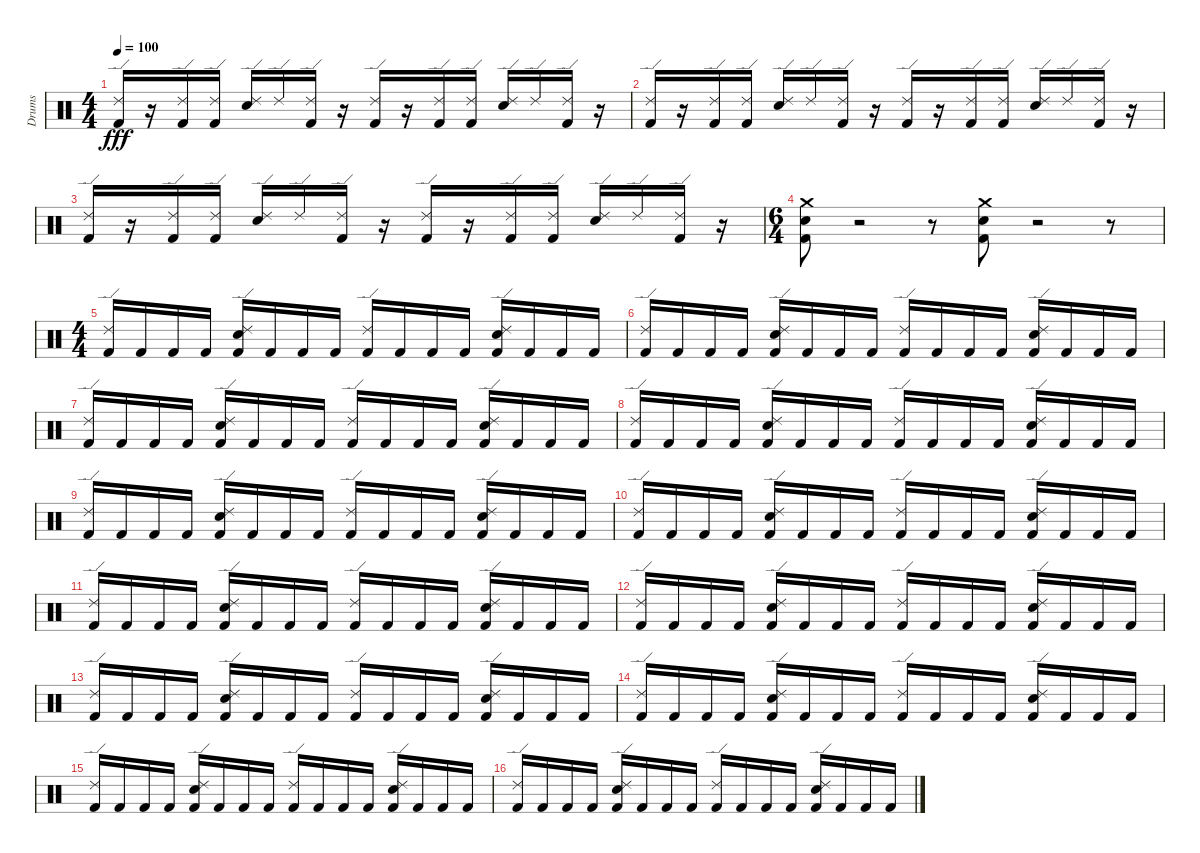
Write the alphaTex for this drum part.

\track ("Drums" "Drums") {instrument percussion}
\staff {score}
\articulation defaults
\ts (4 4)
\tempo 100
\clef neutral
\ks c
("Ride (edge) 2" "Kick (hit) 2").16{dy fff} r.16 ("Ride (edge) 2" "Kick (hit) 2").16 ("Ride (edge) 2" "Kick (hit) 2").16 ("Ride (edge) 2" "Electric Snare (hit)").16 "Ride (edge) 2".16 ("Ride (edge) 2" "Kick (hit) 2").16 r.16 ("Ride (edge) 2" "Kick (hit) 2").16 r.16 ("Ride (edge) 2" "Kick (hit) 2").16 ("Ride (edge) 2" "Kick (hit) 2").16 ("Ride (edge) 2" "Electric Snare (hit)").16 "Ride (edge) 2".16 ("Ride (edge) 2" "Kick (hit) 2").16 r.16 |
("Ride (edge) 2" "Kick (hit) 2").16 r.16 ("Ride (edge) 2" "Kick (hit) 2").16 ("Ride (edge) 2" "Kick (hit) 2").16 ("Ride (edge) 2" "Electric Snare (hit)").16 "Ride (edge) 2".16 ("Ride (edge) 2" "Kick (hit) 2").16 r.16 ("Ride (edge) 2" "Kick (hit) 2").16 r.16 ("Ride (edge) 2" "Kick (hit) 2").16 ("Ride (edge) 2" "Kick (hit) 2").16 ("Ride (edge) 2" "Electric Snare (hit)").16 "Ride (edge) 2".16 ("Ride (edge) 2" "Kick (hit) 2").16 r.16 |
("Ride (edge) 2" "Kick (hit) 2").16 r.16 ("Ride (edge) 2" "Kick (hit) 2").16 ("Ride (edge) 2" "Kick (hit) 2").16 ("Ride (edge) 2" "Electric Snare (hit)").16 "Ride (edge) 2".16 ("Ride (edge) 2" "Kick (hit) 2").16 r.16 ("Ride (edge) 2" "Kick (hit) 2").16 r.16 ("Ride (edge) 2" "Kick (hit) 2").16 ("Ride (edge) 2" "Kick (hit) 2").16 ("Ride (edge) 2" "Electric Snare (hit)").16 "Ride (edge) 2".16 ("Ride (edge) 2" "Kick (hit) 2").16 r.16 |
\ts (6 4)
("Crash medium (hit)" "Electric Snare (hit)" "Kick (hit) 2").8 r.2 r.8 ("Crash medium (hit)" "Electric Snare (hit)" "Kick (hit) 2").8 r.2 r.8 |
\ts (4 4)
("Ride (edge) 2" "Kick (hit) 2").16 "Kick (hit) 2".16 "Kick (hit) 2".16 "Kick (hit) 2".16 ("Electric Snare (hit)" "Ride (edge) 2" "Kick (hit) 2").16 "Kick (hit) 2".16 "Kick (hit) 2".16 "Kick (hit) 2".16 ("Ride (edge) 2" "Kick (hit) 2").16 "Kick (hit) 2".16 "Kick (hit) 2".16 "Kick (hit) 2".16 ("Ride (edge) 2" "Electric Snare (hit)" "Kick (hit) 2").16 "Kick (hit) 2".16 "Kick (hit) 2".16 "Kick (hit) 2".16 |
("Ride (edge) 2" "Kick (hit) 2").16 "Kick (hit) 2".16 "Kick (hit) 2".16 "Kick (hit) 2".16 ("Electric Snare (hit)" "Ride (edge) 2" "Kick (hit) 2").16 "Kick (hit) 2".16 "Kick (hit) 2".16 "Kick (hit) 2".16 ("Ride (edge) 2" "Kick (hit) 2").16 "Kick (hit) 2".16 "Kick (hit) 2".16 "Kick (hit) 2".16 ("Ride (edge) 2" "Electric Snare (hit)" "Kick (hit) 2").16 "Kick (hit) 2".16 "Kick (hit) 2".16 "Kick (hit) 2".16 |
("Ride (edge) 2" "Kick (hit) 2").16 "Kick (hit) 2".16 "Kick (hit) 2".16 "Kick (hit) 2".16 ("Electric Snare (hit)" "Ride (edge) 2" "Kick (hit) 2").16 "Kick (hit) 2".16 "Kick (hit) 2".16 "Kick (hit) 2".16 ("Ride (edge) 2" "Kick (hit) 2").16 "Kick (hit) 2".16 "Kick (hit) 2".16 "Kick (hit) 2".16 ("Ride (edge) 2" "Electric Snare (hit)" "Kick (hit) 2").16 "Kick (hit) 2".16 "Kick (hit) 2".16 "Kick (hit) 2".16 |
("Ride (edge) 2" "Kick (hit) 2").16 "Kick (hit) 2".16 "Kick (hit) 2".16 "Kick (hit) 2".16 ("Electric Snare (hit)" "Ride (edge) 2" "Kick (hit) 2").16 "Kick (hit) 2".16 "Kick (hit) 2".16 "Kick (hit) 2".16 ("Ride (edge) 2" "Kick (hit) 2").16 "Kick (hit) 2".16 "Kick (hit) 2".16 "Kick (hit) 2".16 ("Ride (edge) 2" "Electric Snare (hit)" "Kick (hit) 2").16 "Kick (hit) 2".16 "Kick (hit) 2".16 "Kick (hit) 2".16 |
("Ride (edge) 2" "Kick (hit) 2").16 "Kick (hit) 2".16 "Kick (hit) 2".16 "Kick (hit) 2".16 ("Electric Snare (hit)" "Ride (edge) 2" "Kick (hit) 2").16 "Kick (hit) 2".16 "Kick (hit) 2".16 "Kick (hit) 2".16 ("Ride (edge) 2" "Kick (hit) 2").16 "Kick (hit) 2".16 "Kick (hit) 2".16 "Kick (hit) 2".16 ("Ride (edge) 2" "Electric Snare (hit)" "Kick (hit) 2").16 "Kick (hit) 2".16 "Kick (hit) 2".16 "Kick (hit) 2".16 |
("Ride (edge) 2" "Kick (hit) 2").16 "Kick (hit) 2".16 "Kick (hit) 2".16 "Kick (hit) 2".16 ("Electric Snare (hit)" "Ride (edge) 2" "Kick (hit) 2").16 "Kick (hit) 2".16 "Kick (hit) 2".16 "Kick (hit) 2".16 ("Ride (edge) 2" "Kick (hit) 2").16 "Kick (hit) 2".16 "Kick (hit) 2".16 "Kick (hit) 2".16 ("Ride (edge) 2" "Electric Snare (hit)" "Kick (hit) 2").16 "Kick (hit) 2".16 "Kick (hit) 2".16 "Kick (hit) 2".16 |
("Ride (edge) 2" "Kick (hit) 2").16 "Kick (hit) 2".16 "Kick (hit) 2".16 "Kick (hit) 2".16 ("Electric Snare (hit)" "Ride (edge) 2" "Kick (hit) 2").16 "Kick (hit) 2".16 "Kick (hit) 2".16 "Kick (hit) 2".16 ("Ride (edge) 2" "Kick (hit) 2").16 "Kick (hit) 2".16 "Kick (hit) 2".16 "Kick (hit) 2".16 ("Ride (edge) 2" "Electric Snare (hit)" "Kick (hit) 2").16 "Kick (hit) 2".16 "Kick (hit) 2".16 "Kick (hit) 2".16 |
("Ride (edge) 2" "Kick (hit) 2").16 "Kick (hit) 2".16 "Kick (hit) 2".16 "Kick (hit) 2".16 ("Electric Snare (hit)" "Ride (edge) 2" "Kick (hit) 2").16 "Kick (hit) 2".16 "Kick (hit) 2".16 "Kick (hit) 2".16 ("Ride (edge) 2" "Kick (hit) 2").16 "Kick (hit) 2".16 "Kick (hit) 2".16 "Kick (hit) 2".16 ("Ride (edge) 2" "Electric Snare (hit)" "Kick (hit) 2").16 "Kick (hit) 2".16 "Kick (hit) 2".16 "Kick (hit) 2".16 |
("Ride (edge) 2" "Kick (hit) 2").16 "Kick (hit) 2".16 "Kick (hit) 2".16 "Kick (hit) 2".16 ("Electric Snare (hit)" "Ride (edge) 2" "Kick (hit) 2").16 "Kick (hit) 2".16 "Kick (hit) 2".16 "Kick (hit) 2".16 ("Ride (edge) 2" "Kick (hit) 2").16 "Kick (hit) 2".16 "Kick (hit) 2".16 "Kick (hit) 2".16 ("Ride (edge) 2" "Electric Snare (hit)" "Kick (hit) 2").16 "Kick (hit) 2".16 "Kick (hit) 2".16 "Kick (hit) 2".16 |
("Ride (edge) 2" "Kick (hit) 2").16 "Kick (hit) 2".16 "Kick (hit) 2".16 "Kick (hit) 2".16 ("Electric Snare (hit)" "Ride (edge) 2" "Kick (hit) 2").16 "Kick (hit) 2".16 "Kick (hit) 2".16 "Kick (hit) 2".16 ("Ride (edge) 2" "Kick (hit) 2").16 "Kick (hit) 2".16 "Kick (hit) 2".16 "Kick (hit) 2".16 ("Ride (edge) 2" "Electric Snare (hit)" "Kick (hit) 2").16 "Kick (hit) 2".16 "Kick (hit) 2".16 "Kick (hit) 2".16 |
("Ride (edge) 2" "Kick (hit) 2").16 "Kick (hit) 2".16 "Kick (hit) 2".16 "Kick (hit) 2".16 ("Electric Snare (hit)" "Ride (edge) 2" "Kick (hit) 2").16 "Kick (hit) 2".16 "Kick (hit) 2".16 "Kick (hit) 2".16 ("Ride (edge) 2" "Kick (hit) 2").16 "Kick (hit) 2".16 "Kick (hit) 2".16 "Kick (hit) 2".16 ("Ride (edge) 2" "Electric Snare (hit)" "Kick (hit) 2").16 "Kick (hit) 2".16 "Kick (hit) 2".16 "Kick (hit) 2".16 |
("Ride (edge) 2" "Kick (hit) 2").16 "Kick (hit) 2".16 "Kick (hit) 2".16 "Kick (hit) 2".16 ("Electric Snare (hit)" "Ride (edge) 2" "Kick (hit) 2").16 "Kick (hit) 2".16 "Kick (hit) 2".16 "Kick (hit) 2".16 ("Ride (edge) 2" "Kick (hit) 2").16 "Kick (hit) 2".16 "Kick (hit) 2".16 "Kick (hit) 2".16 ("Ride (edge) 2" "Electric Snare (hit)" "Kick (hit) 2").16 "Kick (hit) 2".16 "Kick (hit) 2".16 "Kick (hit) 2".16
